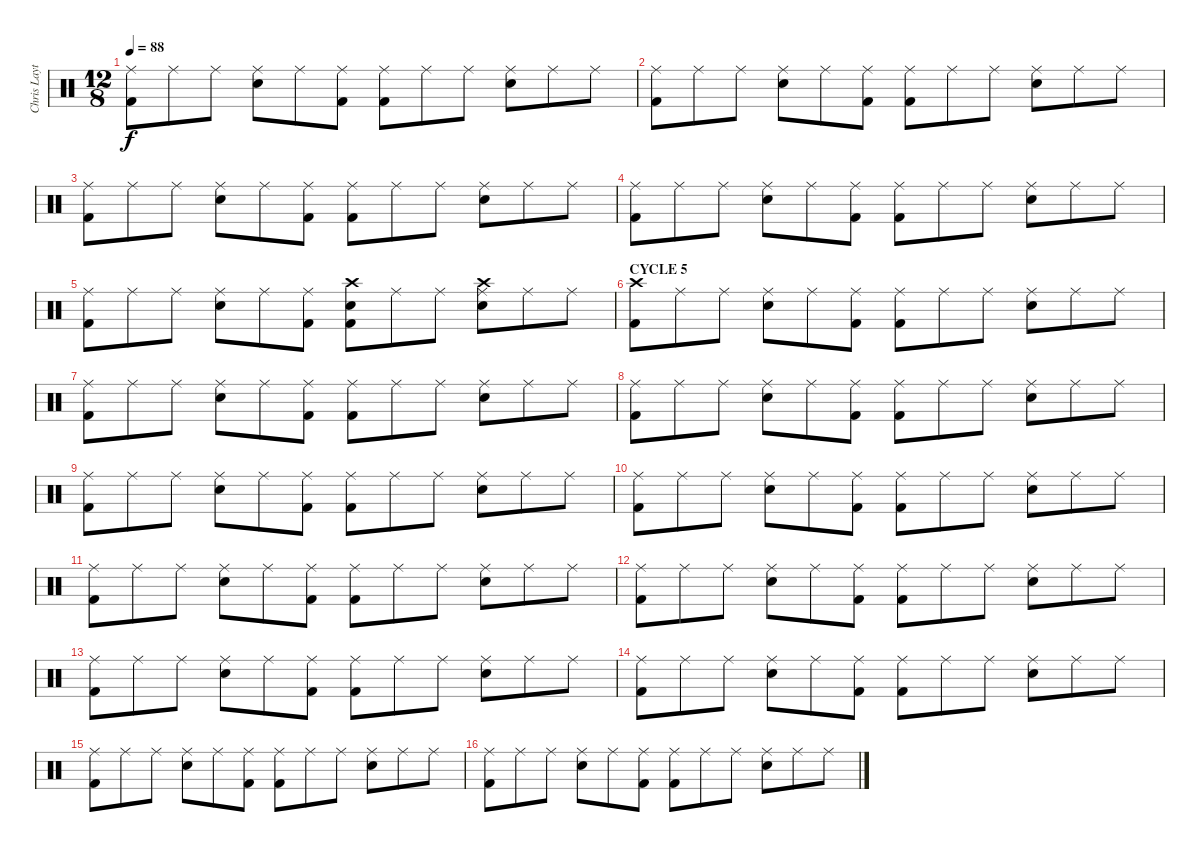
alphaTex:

\track ("Chris Layton" "Chris Layt") {instrument percussion}
\staff {score}
\articulation defaults
\ts (12 8)
\tempo 88
\clef neutral
\ks c
("Ride (middle)" "Kick (hit) 2").8{dy f} "Ride (middle)".8 "Ride (middle)".8 ("Ride (middle)" "Snare (hit) 2").8 "Ride (middle)".8 ("Ride (middle)" "Kick (hit) 2").8 ("Ride (middle)" "Kick (hit) 2").8 "Ride (middle)".8 "Ride (middle)".8 ("Ride (middle)" "Snare (hit) 2").8 "Ride (middle)".8 "Ride (middle)".8 |
("Ride (middle)" "Kick (hit) 2").8 "Ride (middle)".8 "Ride (middle)".8 ("Ride (middle)" "Snare (hit) 2").8 "Ride (middle)".8 ("Ride (middle)" "Kick (hit) 2").8 ("Ride (middle)" "Kick (hit) 2").8 "Ride (middle)".8 "Ride (middle)".8 ("Ride (middle)" "Snare (hit) 2").8 "Ride (middle)".8 "Ride (middle)".8 |
("Ride (middle)" "Kick (hit) 2").8 "Ride (middle)".8 "Ride (middle)".8 ("Ride (middle)" "Snare (hit) 2").8 "Ride (middle)".8 ("Ride (middle)" "Kick (hit) 2").8 ("Ride (middle)" "Kick (hit) 2").8 "Ride (middle)".8 "Ride (middle)".8 ("Ride (middle)" "Snare (hit) 2").8 "Ride (middle)".8 "Ride (middle)".8 |
("Ride (middle)" "Kick (hit) 2").8 "Ride (middle)".8 "Ride (middle)".8 ("Ride (middle)" "Snare (hit) 2").8 "Ride (middle)".8 ("Ride (middle)" "Kick (hit) 2").8 ("Ride (middle)" "Kick (hit) 2").8 "Ride (middle)".8 "Ride (middle)".8 ("Ride (middle)" "Snare (hit) 2").8 "Ride (middle)".8 "Ride (middle)".8 |
("Ride (middle)" "Kick (hit) 2").8 "Ride (middle)".8 "Ride (middle)".8 ("Ride (middle)" "Snare (hit) 2").8 "Ride (middle)".8 ("Ride (middle)" "Kick (hit) 2").8 ("Crash high (hit)" "Snare (hit) 2" "Kick (hit) 2").8 "Ride (middle)".8 "Ride (middle)".8 ("Ride (middle)" "Crash high (hit)" "Snare (hit) 2").8 "Ride (middle)".8 "Ride (middle)".8 |
\section ("" "CYCLE 5")
("Crash high (hit)" "Kick (hit) 2").8 "Ride (middle)".8 "Ride (middle)".8 ("Ride (middle)" "Snare (hit) 2").8 "Ride (middle)".8 ("Ride (middle)" "Kick (hit) 2").8 ("Ride (middle)" "Kick (hit) 2").8 "Ride (middle)".8 "Ride (middle)".8 ("Ride (middle)" "Snare (hit) 2").8 "Ride (middle)".8 "Ride (middle)".8 |
("Ride (middle)" "Kick (hit) 2").8 "Ride (middle)".8 "Ride (middle)".8 ("Ride (middle)" "Snare (hit) 2").8 "Ride (middle)".8 ("Ride (middle)" "Kick (hit) 2").8 ("Ride (middle)" "Kick (hit) 2").8 "Ride (middle)".8 "Ride (middle)".8 ("Ride (middle)" "Snare (hit) 2").8 "Ride (middle)".8 "Ride (middle)".8 |
("Ride (middle)" "Kick (hit) 2").8 "Ride (middle)".8 "Ride (middle)".8 ("Ride (middle)" "Snare (hit) 2").8 "Ride (middle)".8 ("Ride (middle)" "Kick (hit) 2").8 ("Ride (middle)" "Kick (hit) 2").8 "Ride (middle)".8 "Ride (middle)".8 ("Ride (middle)" "Snare (hit) 2").8 "Ride (middle)".8 "Ride (middle)".8 |
("Ride (middle)" "Kick (hit) 2").8 "Ride (middle)".8 "Ride (middle)".8 ("Ride (middle)" "Snare (hit) 2").8 "Ride (middle)".8 ("Ride (middle)" "Kick (hit) 2").8 ("Ride (middle)" "Kick (hit) 2").8 "Ride (middle)".8 "Ride (middle)".8 ("Ride (middle)" "Snare (hit) 2").8 "Ride (middle)".8 "Ride (middle)".8 |
("Ride (middle)" "Kick (hit) 2").8 "Ride (middle)".8 "Ride (middle)".8 ("Ride (middle)" "Snare (hit) 2").8 "Ride (middle)".8 ("Ride (middle)" "Kick (hit) 2").8 ("Ride (middle)" "Kick (hit) 2").8 "Ride (middle)".8 "Ride (middle)".8 ("Ride (middle)" "Snare (hit) 2").8 "Ride (middle)".8 "Ride (middle)".8 |
("Ride (middle)" "Kick (hit) 2").8 "Ride (middle)".8 "Ride (middle)".8 ("Ride (middle)" "Snare (hit) 2").8 "Ride (middle)".8 ("Ride (middle)" "Kick (hit) 2").8 ("Ride (middle)" "Kick (hit) 2").8 "Ride (middle)".8 "Ride (middle)".8 ("Ride (middle)" "Snare (hit) 2").8 "Ride (middle)".8 "Ride (middle)".8 |
("Ride (middle)" "Kick (hit) 2").8 "Ride (middle)".8 "Ride (middle)".8 ("Ride (middle)" "Snare (hit) 2").8 "Ride (middle)".8 ("Ride (middle)" "Kick (hit) 2").8 ("Ride (middle)" "Kick (hit) 2").8 "Ride (middle)".8 "Ride (middle)".8 ("Ride (middle)" "Snare (hit) 2").8 "Ride (middle)".8 "Ride (middle)".8 |
("Ride (middle)" "Kick (hit) 2").8 "Ride (middle)".8 "Ride (middle)".8 ("Ride (middle)" "Snare (hit) 2").8 "Ride (middle)".8 ("Ride (middle)" "Kick (hit) 2").8 ("Ride (middle)" "Kick (hit) 2").8 "Ride (middle)".8 "Ride (middle)".8 ("Ride (middle)" "Snare (hit) 2").8 "Ride (middle)".8 "Ride (middle)".8 |
("Ride (middle)" "Kick (hit) 2").8 "Ride (middle)".8 "Ride (middle)".8 ("Ride (middle)" "Snare (hit) 2").8 "Ride (middle)".8 ("Ride (middle)" "Kick (hit) 2").8 ("Ride (middle)" "Kick (hit) 2").8 "Ride (middle)".8 "Ride (middle)".8 ("Ride (middle)" "Snare (hit) 2").8 "Ride (middle)".8 "Ride (middle)".8 |
("Ride (middle)" "Kick (hit) 2").8 "Ride (middle)".8 "Ride (middle)".8 ("Ride (middle)" "Snare (hit) 2").8 "Ride (middle)".8 ("Ride (middle)" "Kick (hit) 2").8 ("Ride (middle)" "Kick (hit) 2").8 "Ride (middle)".8 "Ride (middle)".8 ("Ride (middle)" "Snare (hit) 2").8 "Ride (middle)".8 "Ride (middle)".8 |
("Ride (middle)" "Kick (hit) 2").8 "Ride (middle)".8 "Ride (middle)".8 ("Ride (middle)" "Snare (hit) 2").8 "Ride (middle)".8 ("Ride (middle)" "Kick (hit) 2").8 ("Ride (middle)" "Kick (hit) 2").8 "Ride (middle)".8 "Ride (middle)".8 ("Ride (middle)" "Snare (hit) 2").8 "Ride (middle)".8 "Ride (middle)".8
